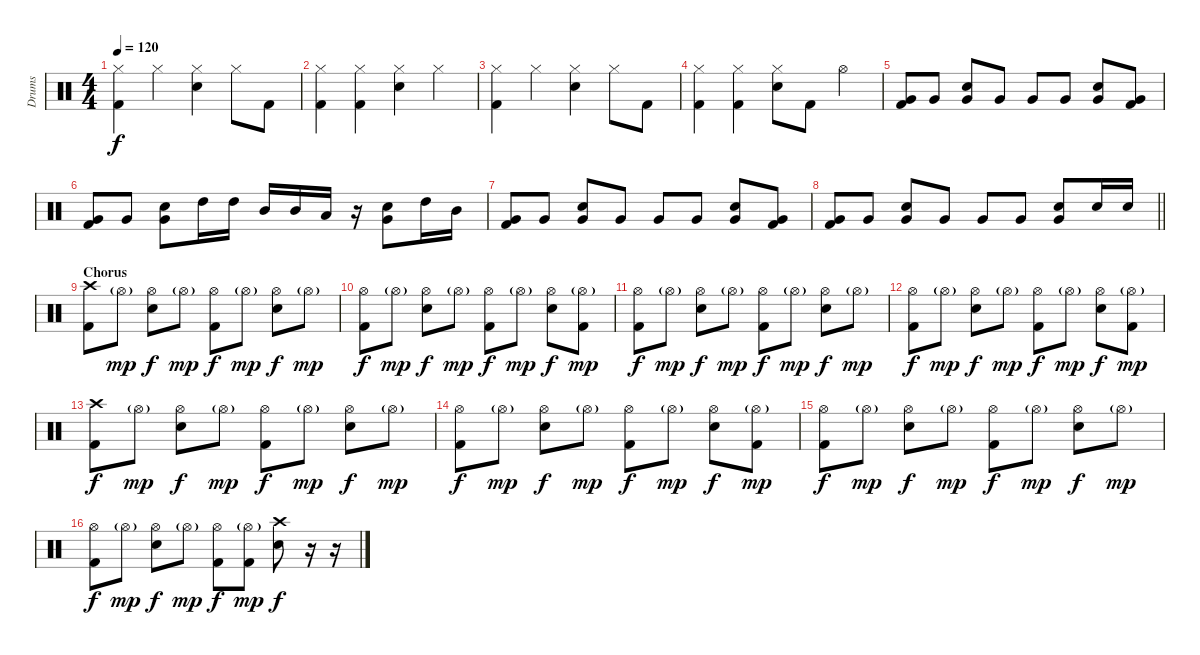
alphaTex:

\track ("Drums" "Drums") {instrument percussion}
\staff {score}
\articulation defaults
\ts (4 4)
\tempo 120
\clef neutral
\ks c
("Hi-Hat (closed)" "Kick (hit) 2").4{dy f} "Hi-Hat (closed)".4 ("Hi-Hat (closed)" "Electric Snare (hit)").4 "Hi-Hat (closed)".8 "Kick (hit) 2".8 |
("Hi-Hat (closed)" "Kick (hit) 2").4 ("Hi-Hat (closed)" "Kick (hit) 2").4 ("Hi-Hat (closed)" "Electric Snare (hit)").4 "Hi-Hat (closed)".4 |
("Hi-Hat (closed)" "Kick (hit) 2").4 "Hi-Hat (closed)".4 ("Hi-Hat (closed)" "Electric Snare (hit)").4 "Hi-Hat (closed)".8 "Kick (hit) 2".8 |
("Hi-Hat (closed)" "Kick (hit) 2").4 ("Hi-Hat (closed)" "Kick (hit) 2").4 ("Hi-Hat (closed)" "Electric Snare (hit)").8 "Kick (hit) 2".8 "Hi-Hat (open)".4 |
("Very Low Tom (hit)" "Kick (hit) 2").8 "Very Low Tom (hit)".8 ("Very Low Tom (hit)" "Electric Snare (hit)").8 "Very Low Tom (hit)".8 "Very Low Tom (hit)".8 "Very Low Tom (hit)".8 ("Very Low Tom (hit)" "Electric Snare (hit)").8 ("Very Low Tom (hit)" "Kick (hit) 2").8 |
("Very Low Tom (hit)" "Kick (hit) 2").8 "Very Low Tom (hit)".8 ("Very Low Tom (hit)" "Electric Snare (hit)").8 "High Tom (hit)".16 "High Tom (hit)".16 "Mid Tom (hit)".16 "Mid Tom (hit)".16 "Low Tom (hit)".16 r.16 ("Very Low Tom (hit)" "Electric Snare (hit)").8 "High Tom (hit)".16 "Mid Tom (hit)".16 |
("Very Low Tom (hit)" "Kick (hit) 2").8 "Very Low Tom (hit)".8 ("Very Low Tom (hit)" "Electric Snare (hit)").8 "Very Low Tom (hit)".8 "Very Low Tom (hit)".8 "Very Low Tom (hit)".8 ("Very Low Tom (hit)" "Electric Snare (hit)").8 ("Very Low Tom (hit)" "Kick (hit) 2").8 |
\barLineRight lightlight
("Very Low Tom (hit)" "Kick (hit) 2").8 "Very Low Tom (hit)".8 ("Very Low Tom (hit)" "Electric Snare (hit)").8 "Very Low Tom (hit)".8 "Very Low Tom (hit)".8 "Very Low Tom (hit)".8 ("Very Low Tom (hit)" "Electric Snare (hit)").8 "Electric Snare (hit)".16 "Electric Snare (hit)".16 |
\section ("" "Chorus")
("Crash high (hit)" "Kick (hit) 2").8 "Hi-Hat (open)"{g}.8{dy mp} ("Hi-Hat (open)" "Electric Snare (hit)").8{dy f} "Hi-Hat (open)"{g}.8{dy mp} ("Hi-Hat (open)" "Kick (hit) 2").8{dy f} "Hi-Hat (open)"{g}.8{dy mp} ("Hi-Hat (open)" "Electric Snare (hit)").8{dy f} "Hi-Hat (open)"{g}.8{dy mp} |
("Hi-Hat (open)" "Kick (hit) 2").8{dy f} "Hi-Hat (open)"{g}.8{dy mp} ("Hi-Hat (open)" "Electric Snare (hit)").8{dy f} "Hi-Hat (open)"{g}.8{dy mp} ("Hi-Hat (open)" "Kick (hit) 2").8{dy f} "Hi-Hat (open)"{g}.8{dy mp} ("Hi-Hat (open)" "Electric Snare (hit)").8{dy f} ("Hi-Hat (open)"{g} "Kick (hit) 2").8{dy mp} |
("Hi-Hat (open)" "Kick (hit) 2").8{dy f} "Hi-Hat (open)"{g}.8{dy mp} ("Hi-Hat (open)" "Electric Snare (hit)").8{dy f} "Hi-Hat (open)"{g}.8{dy mp} ("Hi-Hat (open)" "Kick (hit) 2").8{dy f} "Hi-Hat (open)"{g}.8{dy mp} ("Hi-Hat (open)" "Electric Snare (hit)").8{dy f} "Hi-Hat (open)"{g}.8{dy mp} |
("Hi-Hat (open)" "Kick (hit) 2").8{dy f} "Hi-Hat (open)"{g}.8{dy mp} ("Hi-Hat (open)" "Electric Snare (hit)").8{dy f} "Hi-Hat (open)"{g}.8{dy mp} ("Hi-Hat (open)" "Kick (hit) 2").8{dy f} "Hi-Hat (open)"{g}.8{dy mp} ("Hi-Hat (open)" "Electric Snare (hit)").8{dy f} ("Hi-Hat (open)"{g} "Kick (hit) 2").8{dy mp} |
("Crash high (hit)" "Kick (hit) 2").8{dy f} "Hi-Hat (open)"{g}.8{dy mp} ("Hi-Hat (open)" "Electric Snare (hit)").8{dy f} "Hi-Hat (open)"{g}.8{dy mp} ("Hi-Hat (open)" "Kick (hit) 2").8{dy f} "Hi-Hat (open)"{g}.8{dy mp} ("Hi-Hat (open)" "Electric Snare (hit)").8{dy f} "Hi-Hat (open)"{g}.8{dy mp} |
("Hi-Hat (open)" "Kick (hit) 2").8{dy f} "Hi-Hat (open)"{g}.8{dy mp} ("Hi-Hat (open)" "Electric Snare (hit)").8{dy f} "Hi-Hat (open)"{g}.8{dy mp} ("Hi-Hat (open)" "Kick (hit) 2").8{dy f} "Hi-Hat (open)"{g}.8{dy mp} ("Hi-Hat (open)" "Electric Snare (hit)").8{dy f} ("Hi-Hat (open)"{g} "Kick (hit) 2").8{dy mp} |
("Hi-Hat (open)" "Kick (hit) 2").8{dy f} "Hi-Hat (open)"{g}.8{dy mp} ("Hi-Hat (open)" "Electric Snare (hit)").8{dy f} "Hi-Hat (open)"{g}.8{dy mp} ("Hi-Hat (open)" "Kick (hit) 2").8{dy f} "Hi-Hat (open)"{g}.8{dy mp} ("Hi-Hat (open)" "Electric Snare (hit)").8{dy f} "Hi-Hat (open)"{g}.8{dy mp} |
("Hi-Hat (open)" "Kick (hit) 2").8{dy f} "Hi-Hat (open)"{g}.8{dy mp} ("Hi-Hat (open)" "Electric Snare (hit)").8{dy f} "Hi-Hat (open)"{g}.8{dy mp} ("Hi-Hat (open)" "Kick (hit) 2").8{dy f} ("Hi-Hat (open)"{g} "Kick (hit) 2").8{dy mp} ("Crash high (hit)" "Electric Snare (hit)").8{dy f} r.16 r.16
